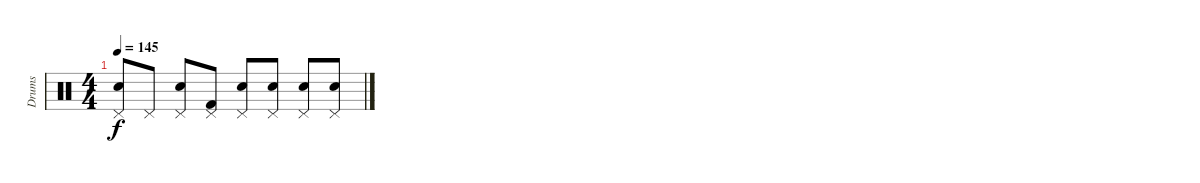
\track ("Drums" "Drums") {instrument percussion}
\staff {score}
\articulation defaults
\ts (4 4)
\tempo 145
\clef neutral
\ks c
("Snare (hit) 2" "Pedal Hi-Hat (hit)").8{dy f} "Pedal Hi-Hat (hit)".8 ("Snare (hit) 2" "Pedal Hi-Hat (hit)").8 ("Kick (hit) 2" "Pedal Hi-Hat (hit)").8 ("Snare (hit) 2" "Pedal Hi-Hat (hit)").8 ("Snare (hit) 2" "Pedal Hi-Hat (hit)").8 ("Snare (hit) 2" "Pedal Hi-Hat (hit)").8 ("Snare (hit) 2" "Pedal Hi-Hat (hit)").8
